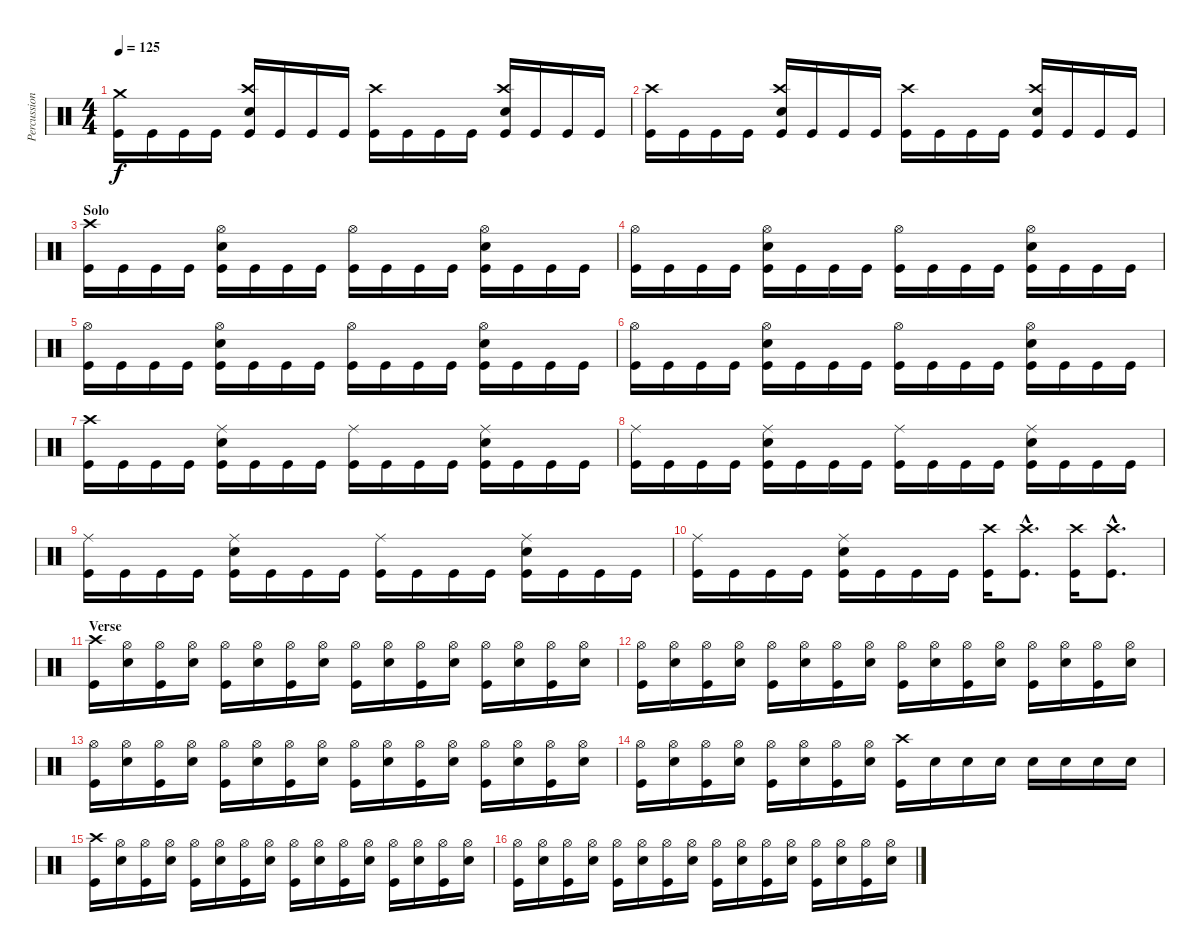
\track ("Percussion" "Percussion") {instrument percussion}
\staff {score}
\articulation defaults
\ts (4 4)
\tempo 125
\clef neutral
\ks c
("Crash medium (hit)" "Kick (hit)").16{dy f} "Kick (hit)".16 "Kick (hit)".16 "Kick (hit)".16 ("Crash high (hit)" "Electric Snare (hit)" "Kick (hit)").16 "Kick (hit)".16 "Kick (hit)".16 "Kick (hit)".16 ("Crash high (hit)" "Kick (hit)").16 "Kick (hit)".16 "Kick (hit)".16 "Kick (hit)".16 ("Crash high (hit)" "Electric Snare (hit)" "Kick (hit)").16 "Kick (hit)".16 "Kick (hit)".16 "Kick (hit)".16 |
("Crash high (hit)" "Kick (hit)").16 "Kick (hit)".16 "Kick (hit)".16 "Kick (hit)".16 ("Crash high (hit)" "Electric Snare (hit)" "Kick (hit)").16 "Kick (hit)".16 "Kick (hit)".16 "Kick (hit)".16 ("Crash high (hit)" "Kick (hit)").16 "Kick (hit)".16 "Kick (hit)".16 "Kick (hit)".16 ("Crash high (hit)" "Electric Snare (hit)" "Kick (hit)").16 "Kick (hit)".16 "Kick (hit)".16 "Kick (hit)".16 |
\section ("" "Solo")
("Crash high (hit)" "Kick (hit)").16 "Kick (hit)".16 "Kick (hit)".16 "Kick (hit)".16 ("Hi-Hat (open)" "Electric Snare (hit)" "Kick (hit)").16 "Kick (hit)".16 "Kick (hit)".16 "Kick (hit)".16 ("Hi-Hat (open)" "Kick (hit)").16 "Kick (hit)".16 "Kick (hit)".16 "Kick (hit)".16 ("Hi-Hat (open)" "Electric Snare (hit)" "Kick (hit)").16 "Kick (hit)".16 "Kick (hit)".16 "Kick (hit)".16 |
("Hi-Hat (open)" "Kick (hit)").16 "Kick (hit)".16 "Kick (hit)".16 "Kick (hit)".16 ("Hi-Hat (open)" "Electric Snare (hit)" "Kick (hit)").16 "Kick (hit)".16 "Kick (hit)".16 "Kick (hit)".16 ("Hi-Hat (open)" "Kick (hit)").16 "Kick (hit)".16 "Kick (hit)".16 "Kick (hit)".16 ("Hi-Hat (open)" "Electric Snare (hit)" "Kick (hit)").16 "Kick (hit)".16 "Kick (hit)".16 "Kick (hit)".16 |
("Hi-Hat (open)" "Kick (hit)").16 "Kick (hit)".16 "Kick (hit)".16 "Kick (hit)".16 ("Hi-Hat (open)" "Electric Snare (hit)" "Kick (hit)").16 "Kick (hit)".16 "Kick (hit)".16 "Kick (hit)".16 ("Hi-Hat (open)" "Kick (hit)").16 "Kick (hit)".16 "Kick (hit)".16 "Kick (hit)".16 ("Hi-Hat (open)" "Electric Snare (hit)" "Kick (hit)").16 "Kick (hit)".16 "Kick (hit)".16 "Kick (hit)".16 |
("Hi-Hat (open)" "Kick (hit)").16 "Kick (hit)".16 "Kick (hit)".16 "Kick (hit)".16 ("Hi-Hat (open)" "Electric Snare (hit)" "Kick (hit)").16 "Kick (hit)".16 "Kick (hit)".16 "Kick (hit)".16 ("Hi-Hat (open)" "Kick (hit)").16 "Kick (hit)".16 "Kick (hit)".16 "Kick (hit)".16 ("Hi-Hat (open)" "Electric Snare (hit)" "Kick (hit)").16 "Kick (hit)".16 "Kick (hit)".16 "Kick (hit)".16 |
("Crash high (hit)" "Kick (hit)").16 "Kick (hit)".16 "Kick (hit)".16 "Kick (hit)".16 ("Ride (middle)" "Electric Snare (hit)" "Kick (hit)").16 "Kick (hit)".16 "Kick (hit)".16 "Kick (hit)".16 ("Ride (middle)" "Kick (hit)").16 "Kick (hit)".16 "Kick (hit)".16 "Kick (hit)".16 ("Ride (middle)" "Electric Snare (hit)" "Kick (hit)").16 "Kick (hit)".16 "Kick (hit)".16 "Kick (hit)".16 |
("Ride (middle)" "Kick (hit)").16 "Kick (hit)".16 "Kick (hit)".16 "Kick (hit)".16 ("Ride (middle)" "Electric Snare (hit)" "Kick (hit)").16 "Kick (hit)".16 "Kick (hit)".16 "Kick (hit)".16 ("Ride (middle)" "Kick (hit)").16 "Kick (hit)".16 "Kick (hit)".16 "Kick (hit)".16 ("Ride (middle)" "Electric Snare (hit)" "Kick (hit)").16 "Kick (hit)".16 "Kick (hit)".16 "Kick (hit)".16 |
("Ride (middle)" "Kick (hit)").16 "Kick (hit)".16 "Kick (hit)".16 "Kick (hit)".16 ("Ride (middle)" "Electric Snare (hit)" "Kick (hit)").16 "Kick (hit)".16 "Kick (hit)".16 "Kick (hit)".16 ("Ride (middle)" "Kick (hit)").16 "Kick (hit)".16 "Kick (hit)".16 "Kick (hit)".16 ("Ride (middle)" "Electric Snare (hit)" "Kick (hit)").16 "Kick (hit)".16 "Kick (hit)".16 "Kick (hit)".16 |
("Ride (middle)" "Kick (hit)").16 "Kick (hit)".16 "Kick (hit)".16 "Kick (hit)".16 ("Ride (middle)" "Electric Snare (hit)" "Kick (hit)").16 "Kick (hit)".16 "Kick (hit)".16 "Kick (hit)".16 ("Crash high (hit)" "Kick (hit)").16 ("Crash high (hit)"{hac} "Kick (hit)"{hac}).8{d} ("Crash high (hit)" "Kick (hit)").16 ("Crash high (hit)"{hac} "Kick (hit)"{hac}).8{d} |
\section ("" "Verse")
("Crash high (hit)" "Kick (hit)").16 ("Hi-Hat (open)" "Electric Snare (hit)").16 ("Hi-Hat (open)" "Kick (hit)").16 ("Hi-Hat (open)" "Electric Snare (hit)").16 ("Hi-Hat (open)" "Kick (hit)").16 ("Hi-Hat (open)" "Electric Snare (hit)").16 ("Hi-Hat (open)" "Kick (hit)").16 ("Hi-Hat (open)" "Electric Snare (hit)").16 ("Hi-Hat (open)" "Kick (hit)").16 ("Hi-Hat (open)" "Electric Snare (hit)").16 ("Hi-Hat (open)" "Kick (hit)").16 ("Hi-Hat (open)" "Electric Snare (hit)").16 ("Hi-Hat (open)" "Kick (hit)").16 ("Hi-Hat (open)" "Electric Snare (hit)").16 ("Hi-Hat (open)" "Kick (hit)").16 ("Hi-Hat (open)" "Electric Snare (hit)").16 |
("Hi-Hat (open)" "Kick (hit)").16 ("Hi-Hat (open)" "Electric Snare (hit)").16 ("Hi-Hat (open)" "Kick (hit)").16 ("Hi-Hat (open)" "Electric Snare (hit)").16 ("Hi-Hat (open)" "Kick (hit)").16 ("Hi-Hat (open)" "Electric Snare (hit)").16 ("Hi-Hat (open)" "Kick (hit)").16 ("Hi-Hat (open)" "Electric Snare (hit)").16 ("Hi-Hat (open)" "Kick (hit)").16 ("Hi-Hat (open)" "Electric Snare (hit)").16 ("Hi-Hat (open)" "Kick (hit)").16 ("Hi-Hat (open)" "Electric Snare (hit)").16 ("Hi-Hat (open)" "Kick (hit)").16 ("Hi-Hat (open)" "Electric Snare (hit)").16 ("Hi-Hat (open)" "Kick (hit)").16 ("Hi-Hat (open)" "Electric Snare (hit)").16 |
("Hi-Hat (open)" "Kick (hit)").16 ("Hi-Hat (open)" "Electric Snare (hit)").16 ("Hi-Hat (open)" "Kick (hit)").16 ("Hi-Hat (open)" "Electric Snare (hit)").16 ("Hi-Hat (open)" "Kick (hit)").16 ("Hi-Hat (open)" "Electric Snare (hit)").16 ("Hi-Hat (open)" "Kick (hit)").16 ("Hi-Hat (open)" "Electric Snare (hit)").16 ("Hi-Hat (open)" "Kick (hit)").16 ("Hi-Hat (open)" "Electric Snare (hit)").16 ("Hi-Hat (open)" "Kick (hit)").16 ("Hi-Hat (open)" "Electric Snare (hit)").16 ("Hi-Hat (open)" "Kick (hit)").16 ("Hi-Hat (open)" "Electric Snare (hit)").16 ("Hi-Hat (open)" "Kick (hit)").16 ("Hi-Hat (open)" "Electric Snare (hit)").16 |
("Hi-Hat (open)" "Kick (hit)").16 ("Hi-Hat (open)" "Electric Snare (hit)").16 ("Hi-Hat (open)" "Kick (hit)").16 ("Hi-Hat (open)" "Electric Snare (hit)").16 ("Hi-Hat (open)" "Kick (hit)").16 ("Hi-Hat (open)" "Electric Snare (hit)").16 ("Hi-Hat (open)" "Kick (hit)").16 ("Hi-Hat (open)" "Electric Snare (hit)").16 ("Crash high (hit)" "Kick (hit)").16 "Electric Snare (hit)".16 "Electric Snare (hit)".16 "Electric Snare (hit)".16 "Electric Snare (hit)".16 "Electric Snare (hit)".16 "Electric Snare (hit)".16 "Electric Snare (hit)".16 |
("Crash high (hit)" "Kick (hit)").16 ("Hi-Hat (open)" "Electric Snare (hit)").16 ("Hi-Hat (open)" "Kick (hit)").16 ("Hi-Hat (open)" "Electric Snare (hit)").16 ("Hi-Hat (open)" "Kick (hit)").16 ("Hi-Hat (open)" "Electric Snare (hit)").16 ("Hi-Hat (open)" "Kick (hit)").16 ("Hi-Hat (open)" "Electric Snare (hit)").16 ("Hi-Hat (open)" "Kick (hit)").16 ("Hi-Hat (open)" "Electric Snare (hit)").16 ("Hi-Hat (open)" "Kick (hit)").16 ("Hi-Hat (open)" "Electric Snare (hit)").16 ("Hi-Hat (open)" "Kick (hit)").16 ("Hi-Hat (open)" "Electric Snare (hit)").16 ("Hi-Hat (open)" "Kick (hit)").16 ("Hi-Hat (open)" "Electric Snare (hit)").16 |
("Hi-Hat (open)" "Kick (hit)").16 ("Hi-Hat (open)" "Electric Snare (hit)").16 ("Hi-Hat (open)" "Kick (hit)").16 ("Hi-Hat (open)" "Electric Snare (hit)").16 ("Hi-Hat (open)" "Kick (hit)").16 ("Hi-Hat (open)" "Electric Snare (hit)").16 ("Hi-Hat (open)" "Kick (hit)").16 ("Hi-Hat (open)" "Electric Snare (hit)").16 ("Hi-Hat (open)" "Kick (hit)").16 ("Hi-Hat (open)" "Electric Snare (hit)").16 ("Hi-Hat (open)" "Kick (hit)").16 ("Hi-Hat (open)" "Electric Snare (hit)").16 ("Hi-Hat (open)" "Kick (hit)").16 ("Hi-Hat (open)" "Electric Snare (hit)").16 ("Hi-Hat (open)" "Kick (hit)").16 ("Hi-Hat (open)" "Electric Snare (hit)").16
